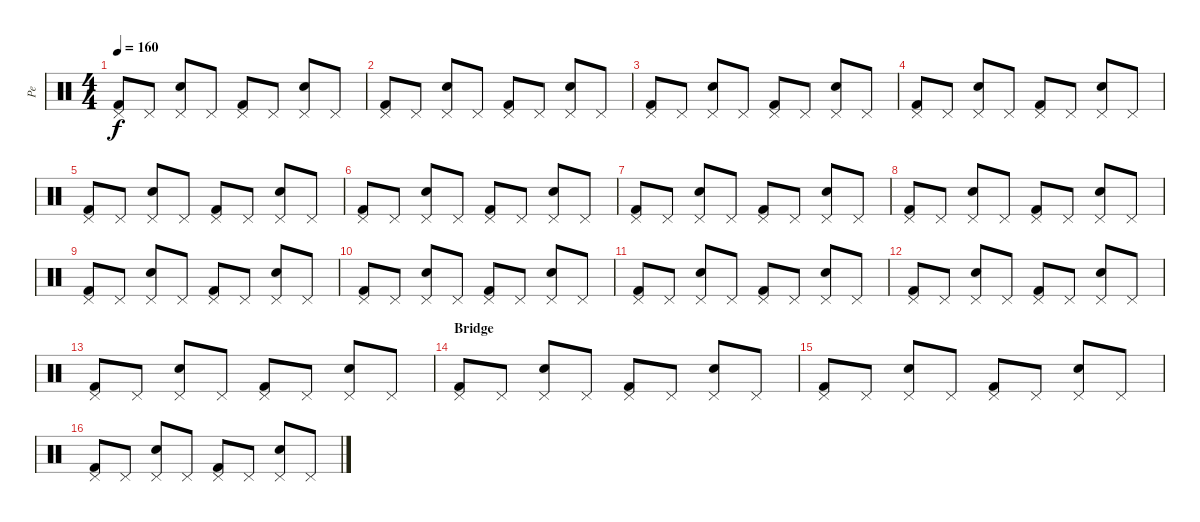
\track ("Pe" "Pe") {instrument percussion}
\staff {score}
\articulation defaults
\ts (4 4)
\tempo 160
\clef neutral
\ks c
("Pedal Hi-Hat (hit)" "Kick (hit) 2").8{dy f} "Pedal Hi-Hat (hit)".8 ("Pedal Hi-Hat (hit)" "Electric Snare (hit)").8 "Pedal Hi-Hat (hit)".8 ("Pedal Hi-Hat (hit)" "Kick (hit) 2").8 "Pedal Hi-Hat (hit)".8 ("Pedal Hi-Hat (hit)" "Electric Snare (hit)").8 "Pedal Hi-Hat (hit)".8 |
("Pedal Hi-Hat (hit)" "Kick (hit) 2").8 "Pedal Hi-Hat (hit)".8 ("Pedal Hi-Hat (hit)" "Electric Snare (hit)").8 "Pedal Hi-Hat (hit)".8 ("Pedal Hi-Hat (hit)" "Kick (hit) 2").8 "Pedal Hi-Hat (hit)".8 ("Pedal Hi-Hat (hit)" "Electric Snare (hit)").8 "Pedal Hi-Hat (hit)".8 |
("Pedal Hi-Hat (hit)" "Kick (hit) 2").8 "Pedal Hi-Hat (hit)".8 ("Pedal Hi-Hat (hit)" "Electric Snare (hit)").8 "Pedal Hi-Hat (hit)".8 ("Pedal Hi-Hat (hit)" "Kick (hit) 2").8 "Pedal Hi-Hat (hit)".8 ("Pedal Hi-Hat (hit)" "Electric Snare (hit)").8 "Pedal Hi-Hat (hit)".8 |
("Pedal Hi-Hat (hit)" "Kick (hit) 2").8 "Pedal Hi-Hat (hit)".8 ("Pedal Hi-Hat (hit)" "Electric Snare (hit)").8 "Pedal Hi-Hat (hit)".8 ("Pedal Hi-Hat (hit)" "Kick (hit) 2").8 "Pedal Hi-Hat (hit)".8 ("Pedal Hi-Hat (hit)" "Electric Snare (hit)").8 "Pedal Hi-Hat (hit)".8 |
("Pedal Hi-Hat (hit)" "Kick (hit) 2").8 "Pedal Hi-Hat (hit)".8 ("Pedal Hi-Hat (hit)" "Electric Snare (hit)").8 "Pedal Hi-Hat (hit)".8 ("Pedal Hi-Hat (hit)" "Kick (hit) 2").8 "Pedal Hi-Hat (hit)".8 ("Pedal Hi-Hat (hit)" "Electric Snare (hit)").8 "Pedal Hi-Hat (hit)".8 |
("Pedal Hi-Hat (hit)" "Kick (hit) 2").8 "Pedal Hi-Hat (hit)".8 ("Pedal Hi-Hat (hit)" "Electric Snare (hit)").8 "Pedal Hi-Hat (hit)".8 ("Pedal Hi-Hat (hit)" "Kick (hit) 2").8 "Pedal Hi-Hat (hit)".8 ("Pedal Hi-Hat (hit)" "Electric Snare (hit)").8 "Pedal Hi-Hat (hit)".8 |
("Pedal Hi-Hat (hit)" "Kick (hit) 2").8 "Pedal Hi-Hat (hit)".8 ("Pedal Hi-Hat (hit)" "Electric Snare (hit)").8 "Pedal Hi-Hat (hit)".8 ("Pedal Hi-Hat (hit)" "Kick (hit) 2").8 "Pedal Hi-Hat (hit)".8 ("Pedal Hi-Hat (hit)" "Electric Snare (hit)").8 "Pedal Hi-Hat (hit)".8 |
("Pedal Hi-Hat (hit)" "Kick (hit) 2").8 "Pedal Hi-Hat (hit)".8 ("Pedal Hi-Hat (hit)" "Electric Snare (hit)").8 "Pedal Hi-Hat (hit)".8 ("Pedal Hi-Hat (hit)" "Kick (hit) 2").8 "Pedal Hi-Hat (hit)".8 ("Pedal Hi-Hat (hit)" "Electric Snare (hit)").8 "Pedal Hi-Hat (hit)".8 |
("Pedal Hi-Hat (hit)" "Kick (hit) 2").8 "Pedal Hi-Hat (hit)".8 ("Pedal Hi-Hat (hit)" "Electric Snare (hit)").8 "Pedal Hi-Hat (hit)".8 ("Pedal Hi-Hat (hit)" "Kick (hit) 2").8 "Pedal Hi-Hat (hit)".8 ("Pedal Hi-Hat (hit)" "Electric Snare (hit)").8 "Pedal Hi-Hat (hit)".8 |
("Pedal Hi-Hat (hit)" "Kick (hit) 2").8 "Pedal Hi-Hat (hit)".8 ("Pedal Hi-Hat (hit)" "Electric Snare (hit)").8 "Pedal Hi-Hat (hit)".8 ("Pedal Hi-Hat (hit)" "Kick (hit) 2").8 "Pedal Hi-Hat (hit)".8 ("Pedal Hi-Hat (hit)" "Electric Snare (hit)").8 "Pedal Hi-Hat (hit)".8 |
("Pedal Hi-Hat (hit)" "Kick (hit) 2").8 "Pedal Hi-Hat (hit)".8 ("Pedal Hi-Hat (hit)" "Electric Snare (hit)").8 "Pedal Hi-Hat (hit)".8 ("Pedal Hi-Hat (hit)" "Kick (hit) 2").8 "Pedal Hi-Hat (hit)".8 ("Pedal Hi-Hat (hit)" "Electric Snare (hit)").8 "Pedal Hi-Hat (hit)".8 |
("Pedal Hi-Hat (hit)" "Kick (hit) 2").8 "Pedal Hi-Hat (hit)".8 ("Pedal Hi-Hat (hit)" "Electric Snare (hit)").8 "Pedal Hi-Hat (hit)".8 ("Pedal Hi-Hat (hit)" "Kick (hit) 2").8 "Pedal Hi-Hat (hit)".8 ("Pedal Hi-Hat (hit)" "Electric Snare (hit)").8 "Pedal Hi-Hat (hit)".8 |
("Pedal Hi-Hat (hit)" "Kick (hit) 2").8 "Pedal Hi-Hat (hit)".8 ("Pedal Hi-Hat (hit)" "Electric Snare (hit)").8 "Pedal Hi-Hat (hit)".8 ("Pedal Hi-Hat (hit)" "Kick (hit) 2").8 "Pedal Hi-Hat (hit)".8 ("Pedal Hi-Hat (hit)" "Electric Snare (hit)").8 "Pedal Hi-Hat (hit)".8 |
\section ("" "Bridge")
("Pedal Hi-Hat (hit)" "Kick (hit) 2").8 "Pedal Hi-Hat (hit)".8 ("Pedal Hi-Hat (hit)" "Electric Snare (hit)").8 "Pedal Hi-Hat (hit)".8 ("Pedal Hi-Hat (hit)" "Kick (hit) 2").8 "Pedal Hi-Hat (hit)".8 ("Pedal Hi-Hat (hit)" "Electric Snare (hit)").8 "Pedal Hi-Hat (hit)".8 |
("Pedal Hi-Hat (hit)" "Kick (hit) 2").8 "Pedal Hi-Hat (hit)".8 ("Pedal Hi-Hat (hit)" "Electric Snare (hit)").8 "Pedal Hi-Hat (hit)".8 ("Pedal Hi-Hat (hit)" "Kick (hit) 2").8 "Pedal Hi-Hat (hit)".8 ("Pedal Hi-Hat (hit)" "Electric Snare (hit)").8 "Pedal Hi-Hat (hit)".8 |
("Pedal Hi-Hat (hit)" "Kick (hit) 2").8 "Pedal Hi-Hat (hit)".8 ("Pedal Hi-Hat (hit)" "Electric Snare (hit)").8 "Pedal Hi-Hat (hit)".8 ("Pedal Hi-Hat (hit)" "Kick (hit) 2").8 "Pedal Hi-Hat (hit)".8 ("Pedal Hi-Hat (hit)" "Electric Snare (hit)").8 "Pedal Hi-Hat (hit)".8
